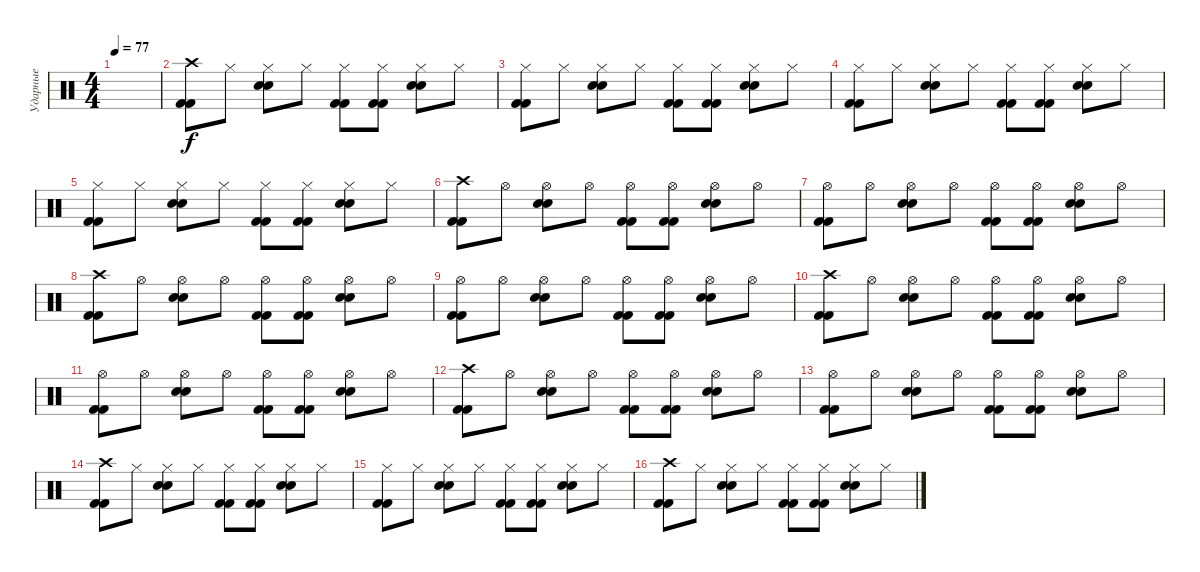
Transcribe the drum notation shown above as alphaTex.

\track ("Ударные" "Ударные") {instrument percussion}
\staff {score}
\articulation defaults
\ts (4 4)
\tempo 77
\clef neutral
\ks c
|
("Crash high (hit)" "Kick (hit) 2" "Kick (hit) 2").8 "Hi-Hat (closed)".8 ("Hi-Hat (closed)" "Snare (hit) 2" "Snare (hit) 2").8 "Hi-Hat (closed)".8 ("Hi-Hat (closed)" "Kick (hit) 2" "Kick (hit) 2").8 ("Hi-Hat (closed)" "Kick (hit) 2" "Kick (hit) 2").8 ("Hi-Hat (closed)" "Snare (hit) 2" "Snare (hit) 2").8 "Hi-Hat (closed)".8 |
("Hi-Hat (closed)" "Kick (hit) 2" "Kick (hit) 2").8 "Hi-Hat (closed)".8 ("Hi-Hat (closed)" "Snare (hit) 2" "Snare (hit) 2").8 "Hi-Hat (closed)".8 ("Hi-Hat (closed)" "Kick (hit) 2" "Kick (hit) 2").8 ("Hi-Hat (closed)" "Kick (hit) 2" "Kick (hit) 2").8 ("Hi-Hat (closed)" "Snare (hit) 2" "Snare (hit) 2").8 "Hi-Hat (closed)".8 |
("Hi-Hat (closed)" "Kick (hit) 2" "Kick (hit) 2").8 "Hi-Hat (closed)".8 ("Hi-Hat (closed)" "Snare (hit) 2" "Snare (hit) 2").8 "Hi-Hat (closed)".8 ("Hi-Hat (closed)" "Kick (hit) 2" "Kick (hit) 2").8 ("Hi-Hat (closed)" "Kick (hit) 2" "Kick (hit) 2").8 ("Hi-Hat (closed)" "Snare (hit) 2" "Snare (hit) 2").8 "Hi-Hat (closed)".8 |
("Hi-Hat (closed)" "Kick (hit) 2" "Kick (hit) 2").8 "Hi-Hat (closed)".8 ("Hi-Hat (closed)" "Snare (hit) 2" "Snare (hit) 2").8 "Hi-Hat (closed)".8 ("Hi-Hat (closed)" "Kick (hit) 2" "Kick (hit) 2").8 ("Hi-Hat (closed)" "Kick (hit) 2" "Kick (hit) 2").8 ("Hi-Hat (closed)" "Snare (hit) 2" "Snare (hit) 2").8 "Hi-Hat (closed)".8 |
("Crash high (hit)" "Kick (hit) 2" "Kick (hit) 2").8 "Hi-Hat (open)".8 ("Hi-Hat (open)" "Snare (hit) 2" "Snare (hit) 2").8 "Hi-Hat (open)".8 ("Hi-Hat (open)" "Kick (hit) 2" "Kick (hit) 2").8 ("Hi-Hat (open)" "Kick (hit) 2" "Kick (hit) 2").8 ("Hi-Hat (open)" "Snare (hit) 2" "Snare (hit) 2").8 "Hi-Hat (open)".8 |
("Hi-Hat (open)" "Kick (hit) 2" "Kick (hit) 2").8 "Hi-Hat (open)".8 ("Hi-Hat (open)" "Snare (hit) 2" "Snare (hit) 2").8 "Hi-Hat (open)".8 ("Hi-Hat (open)" "Kick (hit) 2" "Kick (hit) 2").8 ("Hi-Hat (open)" "Kick (hit) 2" "Kick (hit) 2").8 ("Hi-Hat (open)" "Snare (hit) 2" "Snare (hit) 2").8 "Hi-Hat (open)".8 |
("Crash high (hit)" "Kick (hit) 2" "Kick (hit) 2").8 "Hi-Hat (open)".8 ("Hi-Hat (open)" "Snare (hit) 2" "Snare (hit) 2").8 "Hi-Hat (open)".8 ("Hi-Hat (open)" "Kick (hit) 2" "Kick (hit) 2").8 ("Hi-Hat (open)" "Kick (hit) 2" "Kick (hit) 2").8 ("Hi-Hat (open)" "Snare (hit) 2" "Snare (hit) 2").8 "Hi-Hat (open)".8 |
("Hi-Hat (open)" "Kick (hit) 2" "Kick (hit) 2").8 "Hi-Hat (open)".8 ("Hi-Hat (open)" "Snare (hit) 2" "Snare (hit) 2").8 "Hi-Hat (open)".8 ("Hi-Hat (open)" "Kick (hit) 2" "Kick (hit) 2").8 ("Hi-Hat (open)" "Kick (hit) 2" "Kick (hit) 2").8 ("Hi-Hat (open)" "Snare (hit) 2" "Snare (hit) 2").8 "Hi-Hat (open)".8 |
("Crash high (hit)" "Kick (hit) 2" "Kick (hit) 2").8 "Hi-Hat (open)".8 ("Hi-Hat (open)" "Snare (hit) 2" "Snare (hit) 2").8 "Hi-Hat (open)".8 ("Hi-Hat (open)" "Kick (hit) 2" "Kick (hit) 2").8 ("Hi-Hat (open)" "Kick (hit) 2" "Kick (hit) 2").8 ("Hi-Hat (open)" "Snare (hit) 2" "Snare (hit) 2").8 "Hi-Hat (open)".8 |
("Hi-Hat (open)" "Kick (hit) 2" "Kick (hit) 2").8 "Hi-Hat (open)".8 ("Hi-Hat (open)" "Snare (hit) 2" "Snare (hit) 2").8 "Hi-Hat (open)".8 ("Hi-Hat (open)" "Kick (hit) 2" "Kick (hit) 2").8 ("Hi-Hat (open)" "Kick (hit) 2" "Kick (hit) 2").8 ("Hi-Hat (open)" "Snare (hit) 2" "Snare (hit) 2").8 "Hi-Hat (open)".8 |
("Crash high (hit)" "Kick (hit) 2" "Kick (hit) 2").8 "Hi-Hat (open)".8 ("Hi-Hat (open)" "Snare (hit) 2" "Snare (hit) 2").8 "Hi-Hat (open)".8 ("Hi-Hat (open)" "Kick (hit) 2" "Kick (hit) 2").8 ("Hi-Hat (open)" "Kick (hit) 2" "Kick (hit) 2").8 ("Hi-Hat (open)" "Snare (hit) 2" "Snare (hit) 2").8 "Hi-Hat (open)".8 |
("Hi-Hat (open)" "Kick (hit) 2" "Kick (hit) 2").8 "Hi-Hat (open)".8 ("Hi-Hat (open)" "Snare (hit) 2" "Snare (hit) 2").8 "Hi-Hat (open)".8 ("Hi-Hat (open)" "Kick (hit) 2" "Kick (hit) 2").8 ("Hi-Hat (open)" "Kick (hit) 2" "Kick (hit) 2").8 ("Hi-Hat (open)" "Snare (hit) 2" "Snare (hit) 2").8 "Hi-Hat (open)".8 |
("Crash high (hit)" "Kick (hit) 2" "Kick (hit) 2").8 "Hi-Hat (closed)".8 ("Hi-Hat (closed)" "Snare (hit) 2" "Snare (hit) 2").8 "Hi-Hat (closed)".8 ("Hi-Hat (closed)" "Kick (hit) 2" "Kick (hit) 2").8 ("Hi-Hat (closed)" "Kick (hit) 2" "Kick (hit) 2").8 ("Hi-Hat (closed)" "Snare (hit) 2" "Snare (hit) 2").8 "Hi-Hat (closed)".8 |
("Hi-Hat (closed)" "Kick (hit) 2" "Kick (hit) 2").8 "Hi-Hat (closed)".8 ("Hi-Hat (closed)" "Snare (hit) 2" "Snare (hit) 2").8 "Hi-Hat (closed)".8 ("Hi-Hat (closed)" "Kick (hit) 2" "Kick (hit) 2").8 ("Hi-Hat (closed)" "Kick (hit) 2" "Kick (hit) 2").8 ("Hi-Hat (closed)" "Snare (hit) 2" "Snare (hit) 2").8 "Hi-Hat (closed)".8 |
("Crash high (hit)" "Kick (hit) 2" "Kick (hit) 2").8 "Hi-Hat (closed)".8 ("Hi-Hat (closed)" "Snare (hit) 2" "Snare (hit) 2").8 "Hi-Hat (closed)".8 ("Hi-Hat (closed)" "Kick (hit) 2" "Kick (hit) 2").8 ("Hi-Hat (closed)" "Kick (hit) 2" "Kick (hit) 2").8 ("Hi-Hat (closed)" "Snare (hit) 2" "Snare (hit) 2").8 "Hi-Hat (closed)".8
